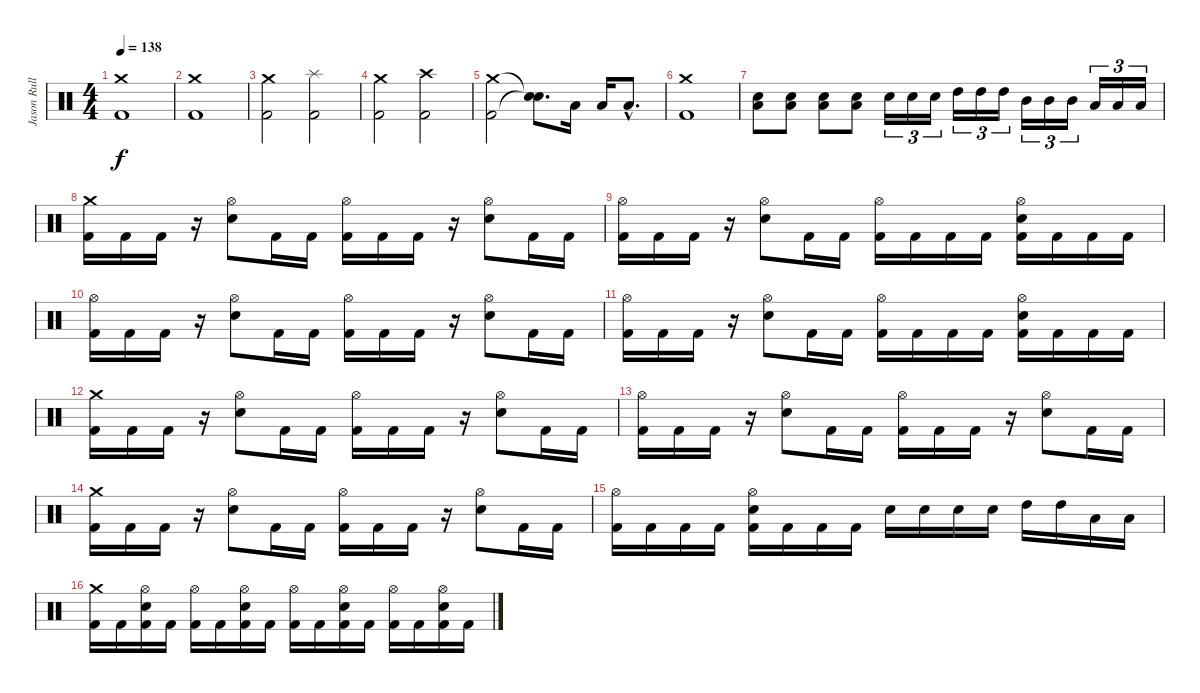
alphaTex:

\track ("Jason Rullo" "Jason Rull") {instrument percussion}
\staff {score}
\articulation defaults
\ts (4 4)
\tempo 138
\clef neutral
\ks c
("Crash medium (hit)" "Kick (hit) 2").1{dy f} |
("Crash medium (hit)" "Kick (hit) 2").1 |
("Crash medium (hit)" "Kick (hit) 2").2 ("Splash (hit)" "Kick (hit) 2").2 |
("Crash medium (hit)" "Kick (hit) 2").2 ("Crash high (hit)" "Kick (hit) 2").2 |
("Crash medium (hit)" "Kick (hit) 2").2 ("Snare (hit)"{t} "Snare (hit)"{t}).8{d} "Low Tom (hit)".16 "Low Tom (hit)".16 "Low Tom (hit)"{hac}.8{d} |
("Crash medium (hit)" "Kick (hit) 2").1 |
("Low Tom (hit)" "Electric Snare (hit)").8{volume 5} ("Low Tom (hit)" "Electric Snare (hit)").8{volume 6} ("Low Tom (hit)" "Electric Snare (hit)").8{volume 8} ("Low Tom (hit)" "Electric Snare (hit)").8{volume 9} "Electric Snare (hit)".16{tu (3 2) volume 10} "Electric Snare (hit)".16{tu (3 2) volume 11} "Electric Snare (hit)".16{tu (3 2) volume 11} "High Tom (hit)".16{tu (3 2) volume 12} "High Tom (hit)".16{tu (3 2) volume 12} "High Tom (hit)".16{tu (3 2) volume 13} "Mid Tom (hit)".16{tu (3 2) volume 13} "Mid Tom (hit)".16{tu (3 2) volume 14} "Mid Tom (hit)".16{tu (3 2) volume 14} "Low Tom (hit)".16{tu (3 2) volume 14} "Low Tom (hit)".16{tu (3 2) volume 15} "Low Tom (hit)".16{tu (3 2) volume 15} |
("Kick (hit) 2" "Crash medium (hit)").16{volume 16} "Kick (hit) 2".16 "Kick (hit) 2".16 r.16 ("Electric Snare (hit)" "Hi-Hat (open)").8 "Kick (hit) 2".16 "Kick (hit) 2".16 ("Kick (hit) 2" "Hi-Hat (open)").16 "Kick (hit) 2".16 "Kick (hit) 2".16 r.16 ("Electric Snare (hit)" "Hi-Hat (open)").8 "Kick (hit) 2".16 "Kick (hit) 2".16 |
("Kick (hit) 2" "Hi-Hat (open)").16 "Kick (hit) 2".16 "Kick (hit) 2".16 r.16 ("Hi-Hat (open)" "Electric Snare (hit)").8 "Kick (hit) 2".16 "Kick (hit) 2".16 ("Kick (hit) 2" "Hi-Hat (open)").16 "Kick (hit) 2".16 "Kick (hit) 2".16 "Kick (hit) 2".16 ("Kick (hit) 2" "Hi-Hat (open)" "Electric Snare (hit)").16 "Kick (hit) 2".16 "Kick (hit) 2".16 "Kick (hit) 2".16 |
("Hi-Hat (open)" "Kick (hit) 2").16 "Kick (hit) 2".16 "Kick (hit) 2".16 r.16 ("Electric Snare (hit)" "Hi-Hat (open)").8 "Kick (hit) 2".16 "Kick (hit) 2".16 ("Kick (hit) 2" "Hi-Hat (open)").16 "Kick (hit) 2".16 "Kick (hit) 2".16 r.16 ("Electric Snare (hit)" "Hi-Hat (open)").8 "Kick (hit) 2".16 "Kick (hit) 2".16 |
("Kick (hit) 2" "Hi-Hat (open)").16 "Kick (hit) 2".16 "Kick (hit) 2".16 r.16 ("Hi-Hat (open)" "Electric Snare (hit)").8 "Kick (hit) 2".16 "Kick (hit) 2".16 ("Kick (hit) 2" "Hi-Hat (open)").16 "Kick (hit) 2".16 "Kick (hit) 2".16 "Kick (hit) 2".16 ("Kick (hit) 2" "Hi-Hat (open)" "Electric Snare (hit)").16 "Kick (hit) 2".16 "Kick (hit) 2".16 "Kick (hit) 2".16 |
("Kick (hit) 2" "Crash medium (hit)").16 "Kick (hit) 2".16 "Kick (hit) 2".16 r.16 ("Electric Snare (hit)" "Hi-Hat (open)").8 "Kick (hit) 2".16 "Kick (hit) 2".16 ("Kick (hit) 2" "Hi-Hat (open)").16 "Kick (hit) 2".16 "Kick (hit) 2".16 r.16 ("Electric Snare (hit)" "Hi-Hat (open)").8 "Kick (hit) 2".16 "Kick (hit) 2".16 |
("Kick (hit) 2" "Hi-Hat (open)").16 "Kick (hit) 2".16 "Kick (hit) 2".16 r.16 ("Hi-Hat (open)" "Electric Snare (hit)").8 "Kick (hit) 2".16 "Kick (hit) 2".16 ("Kick (hit) 2" "Hi-Hat (open)").16 "Kick (hit) 2".16 "Kick (hit) 2".16 r.16 ("Hi-Hat (open)" "Electric Snare (hit)").8 "Kick (hit) 2".16 "Kick (hit) 2".16 |
("Kick (hit) 2" "Crash medium (hit)").16 "Kick (hit) 2".16 "Kick (hit) 2".16 r.16 ("Electric Snare (hit)" "Hi-Hat (open)").8 "Kick (hit) 2".16 "Kick (hit) 2".16 ("Kick (hit) 2" "Hi-Hat (open)").16 "Kick (hit) 2".16 "Kick (hit) 2".16 r.16 ("Electric Snare (hit)" "Hi-Hat (open)").8 "Kick (hit) 2".16 "Kick (hit) 2".16 |
("Kick (hit) 2" "Hi-Hat (open)").16 "Kick (hit) 2".16 "Kick (hit) 2".16 "Kick (hit) 2".16 ("Kick (hit) 2" "Hi-Hat (open)" "Electric Snare (hit)").16 "Kick (hit) 2".16 "Kick (hit) 2".16 "Kick (hit) 2".16 "Electric Snare (hit)".16 "Electric Snare (hit)".16 "Electric Snare (hit)".16 "Electric Snare (hit)".16 "High Tom (hit)".16 "High Tom (hit)".16 "Low Tom (hit)".16 "Low Tom (hit)".16 |
("Crash medium (hit)" "Kick (hit) 2").16 "Kick (hit) 2".16 ("Hi-Hat (open)" "Electric Snare (hit)" "Kick (hit) 2").16 "Kick (hit) 2".16 ("Hi-Hat (open)" "Kick (hit) 2").16 "Kick (hit) 2".16 ("Hi-Hat (open)" "Electric Snare (hit)" "Kick (hit) 2").16 "Kick (hit) 2".16 ("Hi-Hat (open)" "Kick (hit) 2").16 "Kick (hit) 2".16 ("Hi-Hat (open)" "Electric Snare (hit)" "Kick (hit) 2").16 "Kick (hit) 2".16 ("Hi-Hat (open)" "Kick (hit) 2").16 "Kick (hit) 2".16 ("Hi-Hat (open)" "Electric Snare (hit)" "Kick (hit) 2").16 "Kick (hit) 2".16
